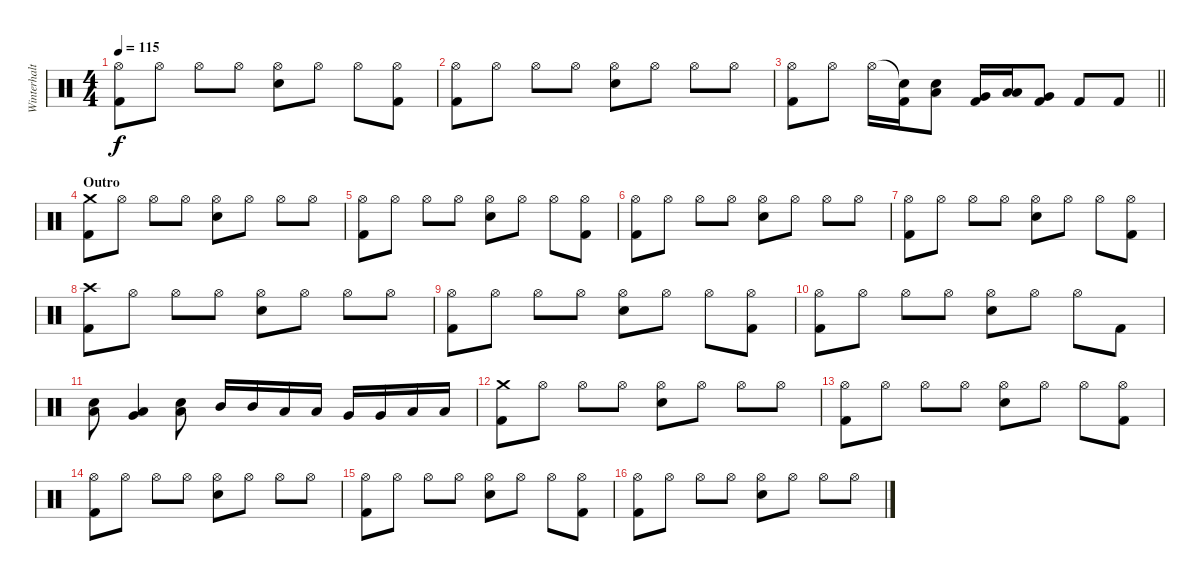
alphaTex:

\track ("Winterhalten" "Winterhalt") {instrument percussion}
\staff {score}
\articulation defaults
\ts (4 4)
\tempo 115
\clef neutral
\ks c
("Hi-Hat (open)" "Kick (hit) 2").8{dy f} "Hi-Hat (open)".8 "Hi-Hat (open)".8 "Hi-Hat (open)".8 ("Snare (hit) 2" "Hi-Hat (open)").8 "Hi-Hat (open)".8 "Hi-Hat (open)".8 ("Hi-Hat (open)" "Kick (hit) 2").8 |
("Hi-Hat (open)" "Kick (hit) 2").8 "Hi-Hat (open)".8 "Hi-Hat (open)".8 "Hi-Hat (open)".8 ("Snare (hit) 2" "Hi-Hat (open)").8 "Hi-Hat (open)".8 "Hi-Hat (open)".8 "Hi-Hat (open)".8 |
\barLineRight lightlight
("Hi-Hat (open)" "Kick (hit) 2").8 "Hi-Hat (open)".8 "Hi-Hat (open)".16 ("Snare (hit)"{t} "Kick (hit) 2").16 ("Snare (hit) 2" "Low Tom (hit)").8 ("Kick (hit) 2" "Very Low Tom (hit)").16 ("Low Tom (hit)" "Low Floor Tom (hit)").16 ("Very Low Tom (hit)" "Kick (hit) 2").8 "Kick (hit) 2".8 "Kick (hit) 2".8 |
\section ("" "Outro")
("Kick (hit) 2" "Crash medium (hit)").8 "Hi-Hat (open)".8 "Hi-Hat (open)".8 "Hi-Hat (open)".8 ("Snare (hit) 2" "Hi-Hat (open)").8 "Hi-Hat (open)".8 "Hi-Hat (open)".8 "Hi-Hat (open)".8 |
("Hi-Hat (open)" "Kick (hit) 2").8 "Hi-Hat (open)".8 "Hi-Hat (open)".8 "Hi-Hat (open)".8 ("Snare (hit) 2" "Hi-Hat (open)").8 "Hi-Hat (open)".8 "Hi-Hat (open)".8 ("Hi-Hat (open)" "Kick (hit) 2").8 |
("Hi-Hat (open)" "Kick (hit) 2").8 "Hi-Hat (open)".8 "Hi-Hat (open)".8 "Hi-Hat (open)".8 ("Snare (hit) 2" "Hi-Hat (open)").8 "Hi-Hat (open)".8 "Hi-Hat (open)".8 "Hi-Hat (open)".8 |
("Hi-Hat (open)" "Kick (hit) 2").8 "Hi-Hat (open)".8 "Hi-Hat (open)".8 "Hi-Hat (open)".8 ("Snare (hit) 2" "Hi-Hat (open)").8 "Hi-Hat (open)".8 "Hi-Hat (open)".8 ("Hi-Hat (open)" "Kick (hit) 2").8 |
("Crash high (hit)" "Kick (hit) 2").8 "Hi-Hat (open)".8 "Hi-Hat (open)".8 "Hi-Hat (open)".8 ("Snare (hit) 2" "Hi-Hat (open)").8 "Hi-Hat (open)".8 "Hi-Hat (open)".8 "Hi-Hat (open)".8 |
("Hi-Hat (open)" "Kick (hit) 2").8 "Hi-Hat (open)".8 "Hi-Hat (open)".8 "Hi-Hat (open)".8 ("Snare (hit) 2" "Hi-Hat (open)").8 "Hi-Hat (open)".8 "Hi-Hat (open)".8 ("Hi-Hat (open)" "Kick (hit) 2").8 |
("Hi-Hat (open)" "Kick (hit) 2").8 "Hi-Hat (open)".8 "Hi-Hat (open)".8 "Hi-Hat (open)".8 ("Snare (hit) 2" "Hi-Hat (open)").8 "Hi-Hat (open)".8 "Hi-Hat (open)".8 "Kick (hit) 2".8 |
("Snare (hit) 2" "Low Tom (hit)").8 ("Low Tom (hit)" "Very Low Tom (hit)").4 ("Snare (hit) 2" "Low Tom (hit)").8 "Mid Tom (hit)".16 "Mid Tom (hit)".16 "Low Tom (hit)".16 "Low Tom (hit)".16 "Very Low Tom (hit)".16 "Very Low Tom (hit)".16 "Low Floor Tom (hit)".16 "Low Floor Tom (hit)".16 |
("Kick (hit) 2" "Crash medium (hit)").8 "Hi-Hat (open)".8 "Hi-Hat (open)".8 "Hi-Hat (open)".8 ("Snare (hit) 2" "Hi-Hat (open)").8 "Hi-Hat (open)".8 "Hi-Hat (open)".8 "Hi-Hat (open)".8 |
("Hi-Hat (open)" "Kick (hit) 2").8 "Hi-Hat (open)".8 "Hi-Hat (open)".8 "Hi-Hat (open)".8 ("Snare (hit) 2" "Hi-Hat (open)").8 "Hi-Hat (open)".8 "Hi-Hat (open)".8 ("Hi-Hat (open)" "Kick (hit) 2").8 |
("Hi-Hat (open)" "Kick (hit) 2").8 "Hi-Hat (open)".8 "Hi-Hat (open)".8 "Hi-Hat (open)".8 ("Snare (hit) 2" "Hi-Hat (open)").8 "Hi-Hat (open)".8 "Hi-Hat (open)".8 "Hi-Hat (open)".8 |
("Hi-Hat (open)" "Kick (hit) 2").8 "Hi-Hat (open)".8 "Hi-Hat (open)".8 "Hi-Hat (open)".8 ("Snare (hit) 2" "Hi-Hat (open)").8 "Hi-Hat (open)".8 "Hi-Hat (open)".8 ("Hi-Hat (open)" "Kick (hit) 2").8 |
("Hi-Hat (open)" "Kick (hit) 2").8 "Hi-Hat (open)".8 "Hi-Hat (open)".8 "Hi-Hat (open)".8 ("Snare (hit) 2" "Hi-Hat (open)").8 "Hi-Hat (open)".8 "Hi-Hat (open)".8 "Hi-Hat (open)".8
